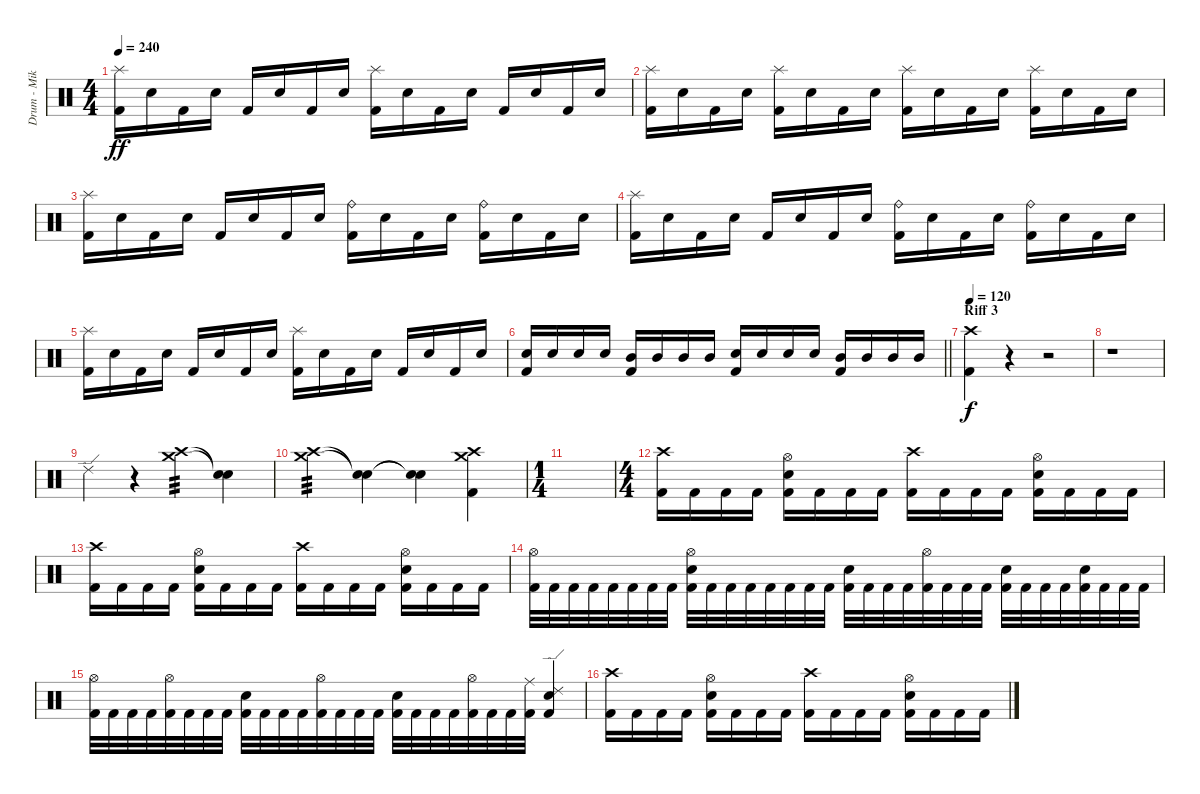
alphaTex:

\track ("Drum - Mike Collins" "Drum - Mik") {instrument percussion}
\staff {score}
\articulation defaults
\ts (4 4)
\tempo 240
\clef neutral
\ks c
("Splash (hit)" "Kick (hit) 2").16{dy ff} "Electric Snare (hit)".16 "Kick (hit) 2".16 "Electric Snare (hit)".16 "Kick (hit) 2".16 "Electric Snare (hit)".16 "Kick (hit) 2".16 "Electric Snare (hit)".16 ("Splash (hit)" "Kick (hit) 2").16 "Electric Snare (hit)".16 "Kick (hit) 2".16 "Electric Snare (hit)".16 "Kick (hit) 2".16 "Electric Snare (hit)".16 "Kick (hit) 2".16 "Electric Snare (hit)".16 |
("Splash (hit)" "Kick (hit) 2").16 "Electric Snare (hit)".16 "Kick (hit) 2".16 "Electric Snare (hit)".16 ("Splash (hit)" "Kick (hit) 2").16 "Electric Snare (hit)".16 "Kick (hit) 2".16 "Electric Snare (hit)".16 ("Splash (hit)" "Kick (hit) 2").16 "Electric Snare (hit)".16 "Kick (hit) 2".16 "Electric Snare (hit)".16 ("Splash (hit)" "Kick (hit) 2").16 "Electric Snare (hit)".16 "Kick (hit) 2".16 "Electric Snare (hit)".16 |
("Splash (hit)" "Kick (hit) 2").16 "Electric Snare (hit)".16 "Kick (hit) 2".16 "Electric Snare (hit)".16 "Kick (hit) 2".16 "Electric Snare (hit)".16 "Kick (hit) 2".16 "Electric Snare (hit)".16 ("Ride (bell)" "Kick (hit) 2").16 "Electric Snare (hit)".16 "Kick (hit) 2".16 "Electric Snare (hit)".16 ("Ride (bell)" "Kick (hit) 2").16 "Electric Snare (hit)".16 "Kick (hit) 2".16 "Electric Snare (hit)".16 |
("Splash (hit)" "Kick (hit) 2").16 "Electric Snare (hit)".16 "Kick (hit) 2".16 "Electric Snare (hit)".16 "Kick (hit) 2".16 "Electric Snare (hit)".16 "Kick (hit) 2".16 "Electric Snare (hit)".16 ("Ride (bell)" "Kick (hit) 2").16 "Electric Snare (hit)".16 "Kick (hit) 2".16 "Electric Snare (hit)".16 ("Ride (bell)" "Kick (hit) 2").16 "Electric Snare (hit)".16 "Kick (hit) 2".16 "Electric Snare (hit)".16 |
("Splash (hit)" "Kick (hit) 2").16 "Electric Snare (hit)".16 "Kick (hit) 2".16 "Electric Snare (hit)".16 "Kick (hit) 2".16 "Electric Snare (hit)".16 "Kick (hit) 2".16 "Electric Snare (hit)".16 ("Splash (hit)" "Kick (hit) 2").16 "Electric Snare (hit)".16 "Kick (hit) 2".16 "Electric Snare (hit)".16 "Kick (hit) 2".16 "Electric Snare (hit)".16 "Kick (hit) 2".16 "Electric Snare (hit)".16 |
\barLineRight lightlight
("Electric Snare (hit)" "Kick (hit) 2").16 "Electric Snare (hit)".16 "Electric Snare (hit)".16 "Electric Snare (hit)".16 ("Mid Tom (hit)" "Kick (hit) 2").16 "Mid Tom (hit)".16 "Mid Tom (hit)".16 "Mid Tom (hit)".16 ("Electric Snare (hit)" "Kick (hit) 2").16 "Electric Snare (hit)".16 "Electric Snare (hit)".16 "Electric Snare (hit)".16 ("Mid Tom (hit)" "Kick (hit) 2").16 "Mid Tom (hit)".16 "Mid Tom (hit)".16 "Mid Tom (hit)".16 |
\section ("" "Riff 3")
\tempo 120
("Crash high (hit)" "Kick (hit) 2").4{dy f} r.4 r.2 |
r.1 |
"Ride (edge) 2".4 r.4 ("Crash high (hit)" "Crash medium (hit)").4{tp 3} ("Snare (hit)"{t} "Snare (hit)"{t}).4 |
("Crash high (hit)" "Crash medium (hit)").4{tp 3} ("Snare (hit)"{t} "Snare (hit)"{t}).4 ("Snare (hit)"{t} "Snare (hit)"{t}).4 ("Crash high (hit)" "Crash medium (hit)" "Kick (hit) 2").4 |
\ts (1 4)
|
\ts (4 4)
("Crash high (hit)" "Kick (hit) 2").16 "Kick (hit) 2".16 "Kick (hit) 2".16 "Kick (hit) 2".16 ("Hi-Hat (open)" "Electric Snare (hit)" "Kick (hit) 2").16 "Kick (hit) 2".16 "Kick (hit) 2".16 "Kick (hit) 2".16 ("Crash high (hit)" "Kick (hit) 2").16 "Kick (hit) 2".16 "Kick (hit) 2".16 "Kick (hit) 2".16 ("Hi-Hat (open)" "Electric Snare (hit)" "Kick (hit) 2").16 "Kick (hit) 2".16 "Kick (hit) 2".16 "Kick (hit) 2".16 |
("Crash high (hit)" "Kick (hit) 2").16 "Kick (hit) 2".16 "Kick (hit) 2".16 "Kick (hit) 2".16 ("Hi-Hat (open)" "Electric Snare (hit)" "Kick (hit) 2").16 "Kick (hit) 2".16 "Kick (hit) 2".16 "Kick (hit) 2".16 ("Crash high (hit)" "Kick (hit) 2").16 "Kick (hit) 2".16 "Kick (hit) 2".16 "Kick (hit) 2".16 ("Hi-Hat (open)" "Electric Snare (hit)" "Kick (hit) 2").16 "Kick (hit) 2".16 "Kick (hit) 2".16 "Kick (hit) 2".16 |
("Hi-Hat (open)" "Kick (hit) 2").32 "Kick (hit) 2".32 "Kick (hit) 2".32 "Kick (hit) 2".32 "Kick (hit) 2".32 "Kick (hit) 2".32 "Kick (hit) 2".32 "Kick (hit) 2".32 ("Hi-Hat (open)" "Electric Snare (hit)" "Kick (hit) 2").32 "Kick (hit) 2".32 "Kick (hit) 2".32 "Kick (hit) 2".32 "Kick (hit) 2".32 "Kick (hit) 2".32 "Kick (hit) 2".32 "Kick (hit) 2".32 ("Electric Snare (hit)" "Kick (hit) 2").32 "Kick (hit) 2".32 "Kick (hit) 2".32 "Kick (hit) 2".32 ("Hi-Hat (open)" "Kick (hit) 2").32 "Kick (hit) 2".32 "Kick (hit) 2".32 "Kick (hit) 2".32 ("Electric Snare (hit)" "Kick (hit) 2").32{beam Down} "Kick (hit) 2".32{beam Down} "Kick (hit) 2".32{beam Down} "Kick (hit) 2".32{beam Down} ("Electric Snare (hit)" "Kick (hit) 2").32{beam Down} "Kick (hit) 2".32{beam Down} "Kick (hit) 2".32{beam Down} "Kick (hit) 2".32{beam Down} |
("Hi-Hat (open)" "Kick (hit) 2").32 "Kick (hit) 2".32 "Kick (hit) 2".32 "Kick (hit) 2".32 ("Hi-Hat (open)" "Kick (hit) 2").32 "Kick (hit) 2".32 "Kick (hit) 2".32 "Kick (hit) 2".32 ("Electric Snare (hit)" "Kick (hit) 2").32 "Kick (hit) 2".32 "Kick (hit) 2".32 "Kick (hit) 2".32 ("Hi-Hat (open)" "Kick (hit) 2").32 "Kick (hit) 2".32 "Kick (hit) 2".32 "Kick (hit) 2".32 ("Electric Snare (hit)" "Kick (hit) 2").32 "Kick (hit) 2".32 "Kick (hit) 2".32 "Kick (hit) 2".32 ("Hi-Hat (open)" "Kick (hit) 2").32 "Kick (hit) 2".32 "Kick (hit) 2".32 ("Ride (middle)" "Kick (hit) 2").32 ("Ride (edge) 2" "Electric Snare (hit)" "Kick (hit) 2").4 |
("Crash high (hit)" "Kick (hit) 2").16 "Kick (hit) 2".16 "Kick (hit) 2".16 "Kick (hit) 2".16 ("Hi-Hat (open)" "Electric Snare (hit)" "Kick (hit) 2").16 "Kick (hit) 2".16 "Kick (hit) 2".16 "Kick (hit) 2".16 ("Crash high (hit)" "Kick (hit) 2").16 "Kick (hit) 2".16 "Kick (hit) 2".16 "Kick (hit) 2".16 ("Hi-Hat (open)" "Electric Snare (hit)" "Kick (hit) 2").16 "Kick (hit) 2".16 "Kick (hit) 2".16 "Kick (hit) 2".16
